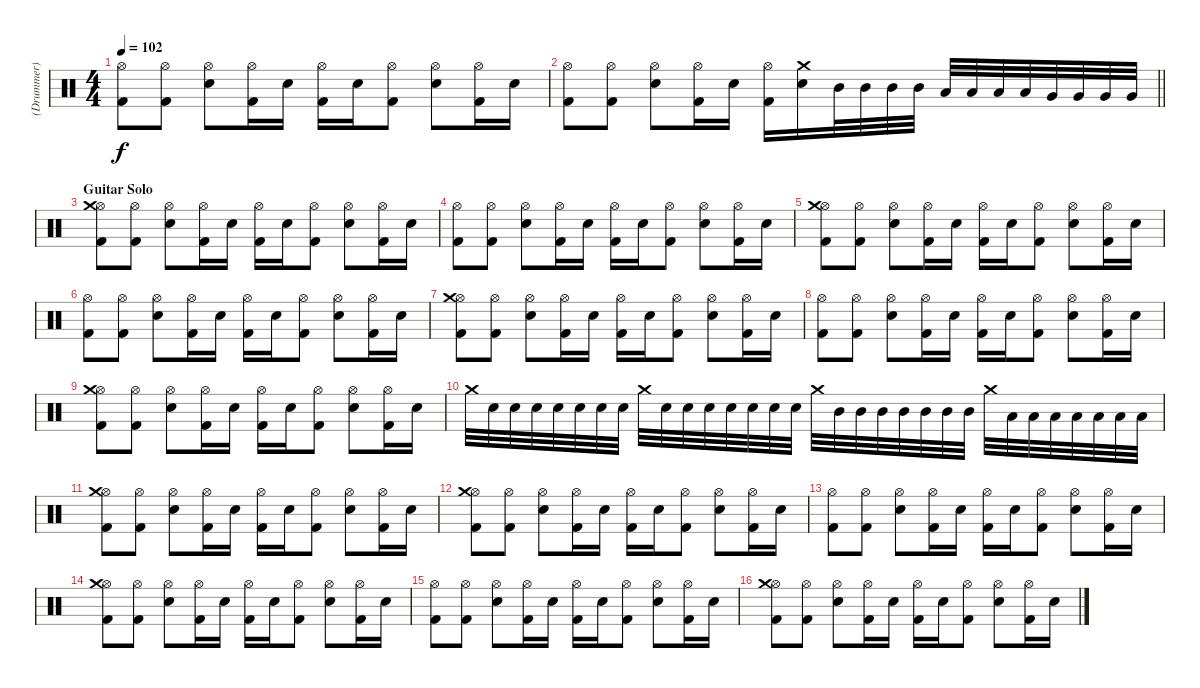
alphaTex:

\track ("(Drummer)" "(Drummer)") {solo instrument percussion}
\staff {score}
\articulation defaults
\ts (4 4)
\tempo 102
\clef neutral
\ks c
("Hi-Hat (open)" "Kick (hit) 2").8{dy f} ("Hi-Hat (open)" "Kick (hit) 2").8 ("Hi-Hat (open)" "Electric Snare (hit)").8 ("Hi-Hat (open)" "Kick (hit) 2").16 "Electric Snare (hit)".16 ("Hi-Hat (open)" "Kick (hit) 2").16 "Electric Snare (hit)".16 ("Hi-Hat (open)" "Kick (hit) 2").8 ("Hi-Hat (open)" "Electric Snare (hit)").8 ("Hi-Hat (open)" "Kick (hit) 2").16 "Electric Snare (hit)".16 |
\barLineRight lightlight
("Hi-Hat (open)" "Kick (hit) 2").8 ("Hi-Hat (open)" "Kick (hit) 2").8 ("Hi-Hat (open)" "Electric Snare (hit)").8 ("Hi-Hat (open)" "Kick (hit) 2").16 "Electric Snare (hit)".16 ("Hi-Hat (open)" "Kick (hit) 2").16 ("Crash medium (hit)" "Electric Snare (hit)").16 "Mid Tom (hit)".32 "Mid Tom (hit)".32 "Mid Tom (hit)".32 "Mid Tom (hit)".32 "Low Tom (hit)".32 "Low Tom (hit)".32 "Low Tom (hit)".32 "Low Tom (hit)".32 "Very Low Tom (hit)".32 "Very Low Tom (hit)".32 "Very Low Tom (hit)".32 "Very Low Tom (hit)".32 |
\section ("" "Guitar Solo")
("Hi-Hat (open)" "Crash medium (hit)" "Kick (hit) 2").8 ("Hi-Hat (open)" "Kick (hit) 2").8 ("Hi-Hat (open)" "Electric Snare (hit)").8 ("Hi-Hat (open)" "Kick (hit) 2").16 "Electric Snare (hit)".16 ("Hi-Hat (open)" "Kick (hit) 2").16 "Electric Snare (hit)".16 ("Hi-Hat (open)" "Kick (hit) 2").8 ("Hi-Hat (open)" "Electric Snare (hit)").8 ("Hi-Hat (open)" "Kick (hit) 2").16 "Electric Snare (hit)".16 |
("Hi-Hat (open)" "Kick (hit) 2").8 ("Hi-Hat (open)" "Kick (hit) 2").8 ("Hi-Hat (open)" "Electric Snare (hit)").8 ("Hi-Hat (open)" "Kick (hit) 2").16 "Electric Snare (hit)".16 ("Hi-Hat (open)" "Kick (hit) 2").16 "Electric Snare (hit)".16 ("Hi-Hat (open)" "Kick (hit) 2").8 ("Hi-Hat (open)" "Electric Snare (hit)").8 ("Hi-Hat (open)" "Kick (hit) 2").16 "Electric Snare (hit)".16 |
("Hi-Hat (open)" "Crash medium (hit)" "Kick (hit) 2").8 ("Hi-Hat (open)" "Kick (hit) 2").8 ("Hi-Hat (open)" "Electric Snare (hit)").8 ("Hi-Hat (open)" "Kick (hit) 2").16 "Electric Snare (hit)".16 ("Hi-Hat (open)" "Kick (hit) 2").16 "Electric Snare (hit)".16 ("Hi-Hat (open)" "Kick (hit) 2").8 ("Hi-Hat (open)" "Electric Snare (hit)").8 ("Hi-Hat (open)" "Kick (hit) 2").16 "Electric Snare (hit)".16 |
("Hi-Hat (open)" "Kick (hit) 2").8 ("Hi-Hat (open)" "Kick (hit) 2").8 ("Hi-Hat (open)" "Electric Snare (hit)").8 ("Hi-Hat (open)" "Kick (hit) 2").16 "Electric Snare (hit)".16 ("Hi-Hat (open)" "Kick (hit) 2").16 "Electric Snare (hit)".16 ("Hi-Hat (open)" "Kick (hit) 2").8 ("Hi-Hat (open)" "Electric Snare (hit)").8 ("Hi-Hat (open)" "Kick (hit) 2").16 "Electric Snare (hit)".16 |
("Hi-Hat (open)" "Crash medium (hit)" "Kick (hit) 2").8 ("Hi-Hat (open)" "Kick (hit) 2").8 ("Hi-Hat (open)" "Electric Snare (hit)").8 ("Hi-Hat (open)" "Kick (hit) 2").16 "Electric Snare (hit)".16 ("Hi-Hat (open)" "Kick (hit) 2").16 "Electric Snare (hit)".16 ("Hi-Hat (open)" "Kick (hit) 2").8 ("Hi-Hat (open)" "Electric Snare (hit)").8 ("Hi-Hat (open)" "Kick (hit) 2").16 "Electric Snare (hit)".16 |
("Hi-Hat (open)" "Kick (hit) 2").8 ("Hi-Hat (open)" "Kick (hit) 2").8 ("Hi-Hat (open)" "Electric Snare (hit)").8 ("Hi-Hat (open)" "Kick (hit) 2").16 "Electric Snare (hit)".16 ("Hi-Hat (open)" "Kick (hit) 2").16 "Electric Snare (hit)".16 ("Hi-Hat (open)" "Kick (hit) 2").8 ("Hi-Hat (open)" "Electric Snare (hit)").8 ("Hi-Hat (open)" "Kick (hit) 2").16 "Electric Snare (hit)".16 |
("Hi-Hat (open)" "Crash medium (hit)" "Kick (hit) 2").8 ("Hi-Hat (open)" "Kick (hit) 2").8 ("Hi-Hat (open)" "Electric Snare (hit)").8 ("Hi-Hat (open)" "Kick (hit) 2").16 "Electric Snare (hit)".16 ("Hi-Hat (open)" "Kick (hit) 2").16 "Electric Snare (hit)".16 ("Hi-Hat (open)" "Kick (hit) 2").8 ("Hi-Hat (open)" "Electric Snare (hit)").8 ("Hi-Hat (open)" "Kick (hit) 2").16 "Electric Snare (hit)".16 |
"Crash medium (hit)".32 "Electric Snare (hit)".32 "Electric Snare (hit)".32 "Electric Snare (hit)".32 "Electric Snare (hit)".32 "Electric Snare (hit)".32 "Electric Snare (hit)".32 "Electric Snare (hit)".32 "Crash medium (hit)".32 "Electric Snare (hit)".32 "Electric Snare (hit)".32 "Electric Snare (hit)".32 "Electric Snare (hit)".32 "Electric Snare (hit)".32 "Electric Snare (hit)".32 "Electric Snare (hit)".32 "Crash medium (hit)".32 "Mid Tom (hit)".32 "Mid Tom (hit)".32 "Mid Tom (hit)".32 "Mid Tom (hit)".32 "Mid Tom (hit)".32 "Mid Tom (hit)".32 "Mid Tom (hit)".32 "Crash medium (hit)".32 "Low Tom (hit)".32 "Low Tom (hit)".32 "Low Tom (hit)".32 "Low Tom (hit)".32 "Low Tom (hit)".32 "Low Tom (hit)".32 "Low Tom (hit)".32 |
("Hi-Hat (open)" "Crash medium (hit)" "Kick (hit) 2").8 ("Hi-Hat (open)" "Kick (hit) 2").8 ("Hi-Hat (open)" "Electric Snare (hit)").8 ("Hi-Hat (open)" "Kick (hit) 2").16 "Electric Snare (hit)".16 ("Hi-Hat (open)" "Kick (hit) 2").16 "Electric Snare (hit)".16 ("Hi-Hat (open)" "Kick (hit) 2").8 ("Hi-Hat (open)" "Electric Snare (hit)").8 ("Hi-Hat (open)" "Kick (hit) 2").16 "Electric Snare (hit)".16 |
("Hi-Hat (open)" "Crash medium (hit)" "Kick (hit) 2").8 ("Hi-Hat (open)" "Kick (hit) 2").8 ("Hi-Hat (open)" "Electric Snare (hit)").8 ("Hi-Hat (open)" "Kick (hit) 2").16 "Electric Snare (hit)".16 ("Hi-Hat (open)" "Kick (hit) 2").16 "Electric Snare (hit)".16 ("Hi-Hat (open)" "Kick (hit) 2").8 ("Hi-Hat (open)" "Electric Snare (hit)").8 ("Hi-Hat (open)" "Kick (hit) 2").16 "Electric Snare (hit)".16 |
("Hi-Hat (open)" "Kick (hit) 2").8 ("Hi-Hat (open)" "Kick (hit) 2").8 ("Hi-Hat (open)" "Electric Snare (hit)").8 ("Hi-Hat (open)" "Kick (hit) 2").16 "Electric Snare (hit)".16 ("Hi-Hat (open)" "Kick (hit) 2").16 "Electric Snare (hit)".16 ("Hi-Hat (open)" "Kick (hit) 2").8 ("Hi-Hat (open)" "Electric Snare (hit)").8 ("Hi-Hat (open)" "Kick (hit) 2").16 "Electric Snare (hit)".16 |
("Hi-Hat (open)" "Crash medium (hit)" "Kick (hit) 2").8 ("Hi-Hat (open)" "Kick (hit) 2").8 ("Hi-Hat (open)" "Electric Snare (hit)").8 ("Hi-Hat (open)" "Kick (hit) 2").16 "Electric Snare (hit)".16 ("Hi-Hat (open)" "Kick (hit) 2").16 "Electric Snare (hit)".16 ("Hi-Hat (open)" "Kick (hit) 2").8 ("Hi-Hat (open)" "Electric Snare (hit)").8 ("Hi-Hat (open)" "Kick (hit) 2").16 "Electric Snare (hit)".16 |
("Hi-Hat (open)" "Kick (hit) 2").8 ("Hi-Hat (open)" "Kick (hit) 2").8 ("Hi-Hat (open)" "Electric Snare (hit)").8 ("Hi-Hat (open)" "Kick (hit) 2").16 "Electric Snare (hit)".16 ("Hi-Hat (open)" "Kick (hit) 2").16 "Electric Snare (hit)".16 ("Hi-Hat (open)" "Kick (hit) 2").8 ("Hi-Hat (open)" "Electric Snare (hit)").8 ("Hi-Hat (open)" "Kick (hit) 2").16 "Electric Snare (hit)".16 |
("Hi-Hat (open)" "Crash medium (hit)" "Kick (hit) 2").8 ("Hi-Hat (open)" "Kick (hit) 2").8 ("Hi-Hat (open)" "Electric Snare (hit)").8 ("Hi-Hat (open)" "Kick (hit) 2").16 "Electric Snare (hit)".16 ("Hi-Hat (open)" "Kick (hit) 2").16 "Electric Snare (hit)".16 ("Hi-Hat (open)" "Kick (hit) 2").8 ("Hi-Hat (open)" "Electric Snare (hit)").8 ("Hi-Hat (open)" "Kick (hit) 2").16 "Electric Snare (hit)".16
